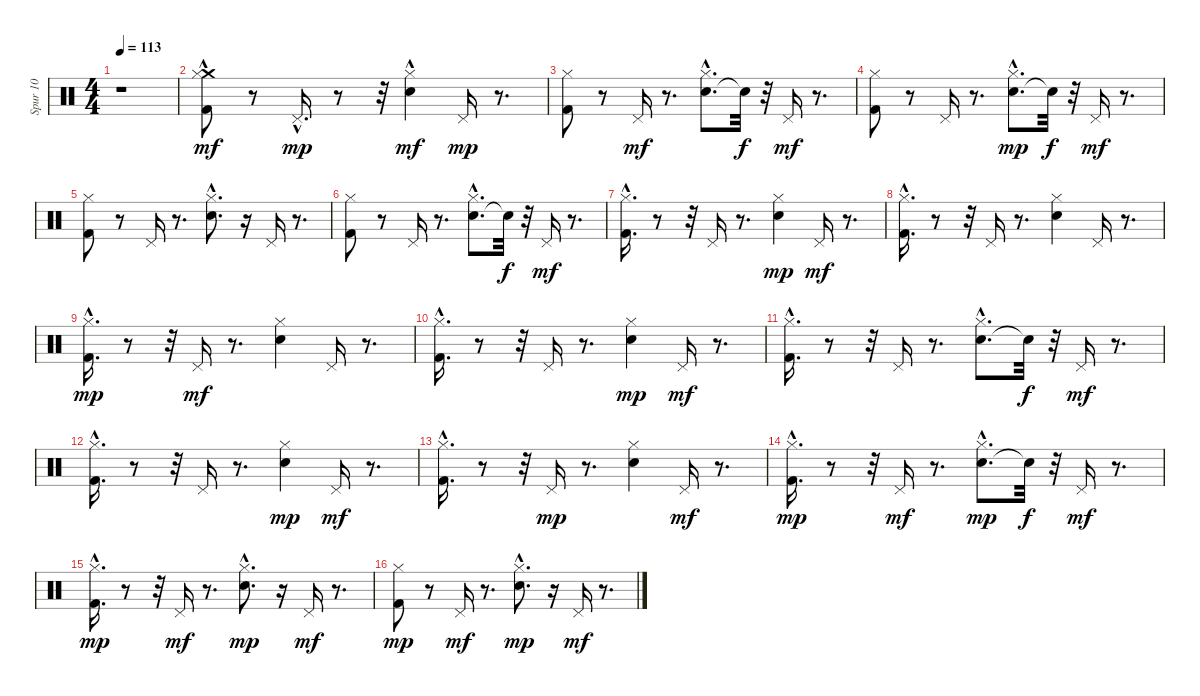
\track ("Spur 10" "Spur 10") {instrument percussion}
\staff {score}
\articulation defaults
\ts (4 4)
\tempo 113
\clef neutral
\ks c
r.1{dy mf} |
("Kick (hit) 2" "Crash medium (hit)"{hac} "Hi-Hat (closed)"{hac}).8 r.8 "Pedal Hi-Hat (hit)"{hac}.16{d dy mp} r.8 r.32 ("Snare (hit) 2" "Hi-Hat (closed)"{hac}).4{dy mf} "Pedal Hi-Hat (hit)".16{dy mp} r.8{d} |
("Kick (hit) 2" "Hi-Hat (closed)").8 r.8 "Pedal Hi-Hat (hit)".16{dy mf} r.8{d} ("Snare (hit) 2"{hac} "Hi-Hat (closed)").8{d} "Snare (hit)"{t}.32{dy f} r.32 "Pedal Hi-Hat (hit)".16{dy mf} r.8{d} |
("Kick (hit) 2" "Hi-Hat (closed)").8 r.8 "Pedal Hi-Hat (hit)".16 r.8{d} ("Snare (hit) 2"{hac} "Hi-Hat (closed)").8{d dy mp} "Snare (hit)"{t}.32{dy f} r.32 "Pedal Hi-Hat (hit)".16{dy mf} r.8{d} |
("Kick (hit) 2" "Hi-Hat (closed)").8 r.8 "Pedal Hi-Hat (hit)".16 r.8{d} ("Snare (hit) 2"{hac} "Hi-Hat (closed)").8{d} r.16 "Pedal Hi-Hat (hit)".16 r.8{d} |
("Kick (hit) 2" "Hi-Hat (closed)").8 r.8 "Pedal Hi-Hat (hit)".16 r.8{d} ("Snare (hit) 2"{hac} "Hi-Hat (closed)").8{d} "Snare (hit)"{t}.32{dy f} r.32 "Pedal Hi-Hat (hit)".16{dy mf} r.8{d} |
("Kick (hit) 2"{hac} "Hi-Hat (closed)").16{d} r.8 r.32 "Pedal Hi-Hat (hit)".16 r.8{d} ("Snare (hit) 2" "Hi-Hat (closed)").4{dy mp} "Pedal Hi-Hat (hit)".16{dy mf} r.8{d} |
("Kick (hit) 2"{hac} "Hi-Hat (closed)").16{d} r.8 r.32 "Pedal Hi-Hat (hit)".16 r.8{d} ("Snare (hit) 2" "Hi-Hat (closed)").4 "Pedal Hi-Hat (hit)".16 r.8{d} |
("Kick (hit) 2"{hac} "Hi-Hat (closed)").16{d dy mp} r.8 r.32 "Pedal Hi-Hat (hit)".16{dy mf} r.8{d} ("Snare (hit) 2" "Hi-Hat (closed)").4 "Pedal Hi-Hat (hit)".16 r.8{d} |
("Kick (hit) 2"{hac} "Hi-Hat (closed)").16{d} r.8 r.32 "Pedal Hi-Hat (hit)".16 r.8{d} ("Snare (hit) 2" "Hi-Hat (closed)").4{dy mp} "Pedal Hi-Hat (hit)".16{dy mf} r.8{d} |
("Kick (hit) 2"{hac} "Hi-Hat (closed)").16{d} r.8 r.32 "Pedal Hi-Hat (hit)".16 r.8{d} ("Snare (hit) 2"{hac} "Hi-Hat (closed)").8{d} "Snare (hit)"{t}.32{dy f} r.32 "Pedal Hi-Hat (hit)".16{dy mf} r.8{d} |
("Kick (hit) 2"{hac} "Hi-Hat (closed)").16{d} r.8 r.32 "Pedal Hi-Hat (hit)".16 r.8{d} ("Snare (hit) 2" "Hi-Hat (closed)").4{dy mp} "Pedal Hi-Hat (hit)".16{dy mf} r.8{d} |
("Kick (hit) 2"{hac} "Hi-Hat (closed)").16{d} r.8 r.32 "Pedal Hi-Hat (hit)".16{dy mp} r.8{d} ("Snare (hit) 2" "Hi-Hat (closed)").4 "Pedal Hi-Hat (hit)".16{dy mf} r.8{d} |
("Kick (hit) 2"{hac} "Hi-Hat (closed)").16{d dy mp} r.8 r.32 "Pedal Hi-Hat (hit)".16{dy mf} r.8{d} ("Snare (hit) 2"{hac} "Hi-Hat (closed)").8{d dy mp} "Snare (hit)"{t}.32{dy f} r.32 "Pedal Hi-Hat (hit)".16{dy mf} r.8{d} |
("Kick (hit) 2"{hac} "Hi-Hat (closed)").16{d dy mp} r.8 r.32 "Pedal Hi-Hat (hit)".16{dy mf} r.8{d} ("Snare (hit) 2"{hac} "Hi-Hat (closed)").8{d dy mp} r.16 "Pedal Hi-Hat (hit)".16{dy mf} r.8{d} |
("Kick (hit) 2" "Hi-Hat (closed)").8{dy mp} r.8 "Pedal Hi-Hat (hit)".16{dy mf} r.8{d} ("Snare (hit) 2"{hac} "Hi-Hat (closed)").8{d dy mp} r.16 "Pedal Hi-Hat (hit)".16{dy mf} r.8{d}
